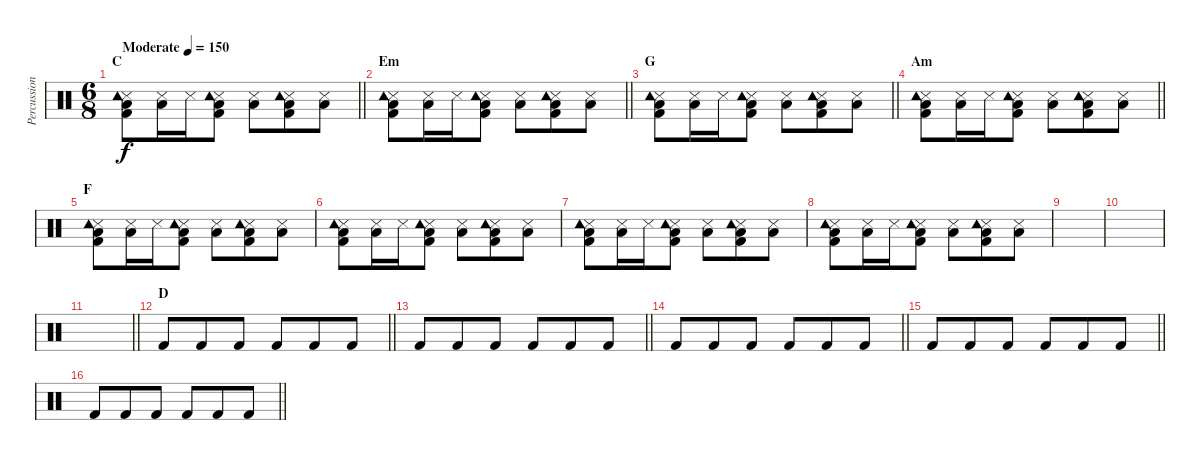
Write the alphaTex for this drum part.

\track ("Percussion" "Percussion") {instrument percussion}
\staff {score}
\articulation defaults
\ts (6 8)
\section ("" "C")
\tempo (150 "Moderate")
\clef neutral
\barLineRight lightlight
\ks c
("Snare (side stick) 3" "Kick (hit) 2" "Tambourine (hit)" "Low Tom (hit)").8{dy f} ("Snare (side stick) 3" "Low Tom (hit)").16 "Snare (side stick) 3".16 ("Snare (side stick) 3" "Kick (hit) 2" "Tambourine (hit)" "Low Tom (hit)").8 ("Snare (side stick) 3" "Low Tom (hit)").8 ("Snare (side stick) 3" "Kick (hit) 2" "Tambourine (hit)" "Low Tom (hit)").8 ("Snare (side stick) 3" "Low Tom (hit)").8 |
\section ("" "Em")
\barLineRight lightlight
("Snare (side stick) 3" "Kick (hit) 2" "Tambourine (hit)" "Low Tom (hit)").8 ("Snare (side stick) 3" "Low Tom (hit)").16 "Snare (side stick) 3".16 ("Snare (side stick) 3" "Kick (hit) 2" "Tambourine (hit)" "Low Tom (hit)").8 ("Snare (side stick) 3" "Low Tom (hit)").8 ("Snare (side stick) 3" "Kick (hit) 2" "Tambourine (hit)" "Low Tom (hit)").8 ("Snare (side stick) 3" "Low Tom (hit)").8 |
\section ("" "G")
\barLineRight lightlight
("Snare (side stick) 3" "Kick (hit) 2" "Tambourine (hit)" "Low Tom (hit)").8 ("Snare (side stick) 3" "Low Tom (hit)").16 "Snare (side stick) 3".16 ("Snare (side stick) 3" "Kick (hit) 2" "Tambourine (hit)" "Low Tom (hit)").8 ("Snare (side stick) 3" "Low Tom (hit)").8 ("Snare (side stick) 3" "Kick (hit) 2" "Tambourine (hit)" "Low Tom (hit)").8 ("Snare (side stick) 3" "Low Tom (hit)").8 |
\section ("" "Am")
\barLineRight lightlight
("Snare (side stick) 3" "Kick (hit) 2" "Tambourine (hit)" "Low Tom (hit)").8 ("Snare (side stick) 3" "Low Tom (hit)").16 "Snare (side stick) 3".16 ("Snare (side stick) 3" "Kick (hit) 2" "Tambourine (hit)" "Low Tom (hit)").8 ("Snare (side stick) 3" "Low Tom (hit)").8 ("Snare (side stick) 3" "Kick (hit) 2" "Tambourine (hit)" "Low Tom (hit)").8 ("Snare (side stick) 3" "Low Tom (hit)").8 |
\section ("" "F")
("Snare (side stick) 3" "Kick (hit) 2" "Tambourine (hit)" "Low Tom (hit)").8 ("Snare (side stick) 3" "Low Tom (hit)").16 "Snare (side stick) 3".16 ("Snare (side stick) 3" "Kick (hit) 2" "Tambourine (hit)" "Low Tom (hit)").8 ("Snare (side stick) 3" "Low Tom (hit)").8 ("Snare (side stick) 3" "Kick (hit) 2" "Tambourine (hit)" "Low Tom (hit)").8 ("Snare (side stick) 3" "Low Tom (hit)").8 |
("Snare (side stick) 3" "Kick (hit) 2" "Tambourine (hit)" "Low Tom (hit)").8 ("Snare (side stick) 3" "Low Tom (hit)").16 "Snare (side stick) 3".16 ("Snare (side stick) 3" "Kick (hit) 2" "Tambourine (hit)" "Low Tom (hit)").8 ("Snare (side stick) 3" "Low Tom (hit)").8 ("Snare (side stick) 3" "Kick (hit) 2" "Tambourine (hit)" "Low Tom (hit)").8 ("Snare (side stick) 3" "Low Tom (hit)").8 |
("Snare (side stick) 3" "Kick (hit) 2" "Tambourine (hit)" "Low Tom (hit)").8 ("Snare (side stick) 3" "Low Tom (hit)").16 "Snare (side stick) 3".16 ("Snare (side stick) 3" "Kick (hit) 2" "Tambourine (hit)" "Low Tom (hit)").8 ("Snare (side stick) 3" "Low Tom (hit)").8 ("Snare (side stick) 3" "Kick (hit) 2" "Tambourine (hit)" "Low Tom (hit)").8 ("Snare (side stick) 3" "Low Tom (hit)").8 |
("Snare (side stick) 3" "Kick (hit) 2" "Tambourine (hit)" "Low Tom (hit)").8 ("Snare (side stick) 3" "Low Tom (hit)").16 "Snare (side stick) 3".16 ("Snare (side stick) 3" "Kick (hit) 2" "Tambourine (hit)" "Low Tom (hit)").8 ("Snare (side stick) 3" "Low Tom (hit)").8 ("Snare (side stick) 3" "Kick (hit) 2" "Tambourine (hit)" "Low Tom (hit)").8 ("Snare (side stick) 3" "Low Tom (hit)").8 |
|
|
\barLineRight lightlight
|
\section ("" "D")
\barLineRight lightlight "Kick (hit) 2".8{volume 12} "Kick (hit) 2".8 "Kick (hit) 2".8 "Kick (hit) 2".8 "Kick (hit) 2".8 "Kick (hit) 2".8
|
\barLineRight lightlight "Kick (hit) 2".8 "Kick (hit) 2".8 "Kick (hit) 2".8 "Kick (hit) 2".8 "Kick (hit) 2".8 "Kick (hit) 2".8
|
\barLineRight lightlight "Kick (hit) 2".8 "Kick (hit) 2".8 "Kick (hit) 2".8 "Kick (hit) 2".8 "Kick (hit) 2".8 "Kick (hit) 2".8
|
\barLineRight lightlight "Kick (hit) 2".8 "Kick (hit) 2".8 "Kick (hit) 2".8 "Kick (hit) 2".8 "Kick (hit) 2".8 "Kick (hit) 2".8
|
\barLineRight lightlight "Kick (hit) 2".8 "Kick (hit) 2".8 "Kick (hit) 2".8 "Kick (hit) 2".8 "Kick (hit) 2".8 "Kick (hit) 2".8
